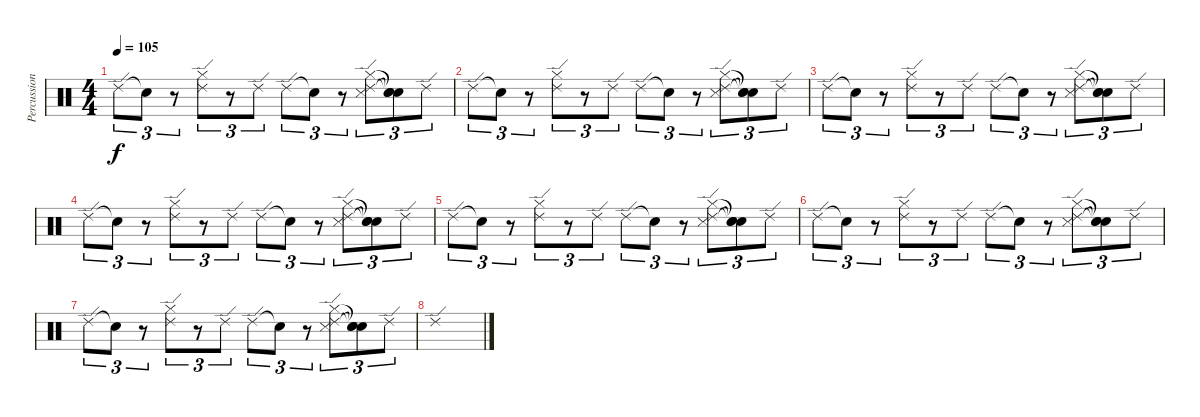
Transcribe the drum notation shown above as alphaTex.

\track ("Percussion" "Percussion") {instrument percussion}
\staff {score}
\articulation defaults
\ts (4 4)
\tempo 105
\clef neutral
\ks c "Ride (edge) 2".8{tu (3 2) dy f} "Snare (hit)"{t}.8{tu (3 2)}
r.8{tu (3 2)} ("Ride (edge) 2" "Hi-Hat (closed)").8{tu (3 2)} r.8{tu (3 2)} "Ride (edge) 2".8{tu (3 2)} "Ride (edge) 2".8{tu (3 2)} "Snare (hit)"{t}.8{tu (3 2)} r.8{tu (3 2)} ("Ride (edge) 2" "Snare (side stick) 3" "Hi-Hat (closed)").8{tu (3 2)} ("Snare (hit)"{t} "Snare (hit)"{t} "Snare (hit)"{t}).8{tu (3 2)} "Ride (edge) 2".8{tu (3 2)} |
"Ride (edge) 2".8{tu (3 2)} "Snare (hit)"{t}.8{tu (3 2)} r.8{tu (3 2)} ("Ride (edge) 2" "Hi-Hat (closed)").8{tu (3 2)} r.8{tu (3 2)} "Ride (edge) 2".8{tu (3 2)} "Ride (edge) 2".8{tu (3 2)} "Snare (hit)"{t}.8{tu (3 2)} r.8{tu (3 2)} ("Ride (edge) 2" "Snare (side stick) 3" "Hi-Hat (closed)").8{tu (3 2)} ("Snare (hit)"{t} "Snare (hit)"{t} "Snare (hit)"{t}).8{tu (3 2)} "Ride (edge) 2".8{tu (3 2)} |
"Ride (edge) 2".8{tu (3 2)} "Snare (hit)"{t}.8{tu (3 2)} r.8{tu (3 2)} ("Ride (edge) 2" "Hi-Hat (closed)").8{tu (3 2)} r.8{tu (3 2)} "Ride (edge) 2".8{tu (3 2)} "Ride (edge) 2".8{tu (3 2)} "Snare (hit)"{t}.8{tu (3 2)} r.8{tu (3 2)} ("Ride (edge) 2" "Snare (side stick) 3" "Hi-Hat (closed)").8{tu (3 2)} ("Snare (hit)"{t} "Snare (hit)"{t} "Snare (hit)"{t}).8{tu (3 2)} "Ride (edge) 2".8{tu (3 2)} |
"Ride (edge) 2".8{tu (3 2)} "Snare (hit)"{t}.8{tu (3 2)} r.8{tu (3 2)} ("Ride (edge) 2" "Hi-Hat (closed)").8{tu (3 2)} r.8{tu (3 2)} "Ride (edge) 2".8{tu (3 2)} "Ride (edge) 2".8{tu (3 2)} "Snare (hit)"{t}.8{tu (3 2)} r.8{tu (3 2)} ("Ride (edge) 2" "Snare (side stick) 3" "Hi-Hat (closed)").8{tu (3 2)} ("Snare (hit)"{t} "Snare (hit)"{t} "Snare (hit)"{t}).8{tu (3 2)} "Ride (edge) 2".8{tu (3 2)} |
"Ride (edge) 2".8{tu (3 2)} "Snare (hit)"{t}.8{tu (3 2)} r.8{tu (3 2)} ("Ride (edge) 2" "Hi-Hat (closed)").8{tu (3 2)} r.8{tu (3 2)} "Ride (edge) 2".8{tu (3 2)} "Ride (edge) 2".8{tu (3 2)} "Snare (hit)"{t}.8{tu (3 2)} r.8{tu (3 2)} ("Ride (edge) 2" "Snare (side stick) 3" "Hi-Hat (closed)").8{tu (3 2)} ("Snare (hit)"{t} "Snare (hit)"{t} "Snare (hit)"{t}).8{tu (3 2)} "Ride (edge) 2".8{tu (3 2)} |
"Ride (edge) 2".8{tu (3 2)} "Snare (hit)"{t}.8{tu (3 2)} r.8{tu (3 2)} ("Ride (edge) 2" "Hi-Hat (closed)").8{tu (3 2)} r.8{tu (3 2)} "Ride (edge) 2".8{tu (3 2)} "Ride (edge) 2".8{tu (3 2)} "Snare (hit)"{t}.8{tu (3 2)} r.8{tu (3 2)} ("Ride (edge) 2" "Snare (side stick) 3" "Hi-Hat (closed)").8{tu (3 2)} ("Snare (hit)"{t} "Snare (hit)"{t} "Snare (hit)"{t}).8{tu (3 2)} "Ride (edge) 2".8{tu (3 2)} |
"Ride (edge) 2".8{tu (3 2)} "Snare (hit)"{t}.8{tu (3 2)} r.8{tu (3 2)} ("Ride (edge) 2" "Hi-Hat (closed)").8{tu (3 2)} r.8{tu (3 2)} "Ride (edge) 2".8{tu (3 2)} "Ride (edge) 2".8{tu (3 2)} "Snare (hit)"{t}.8{tu (3 2)} r.8{tu (3 2)} ("Ride (edge) 2" "Snare (side stick) 3" "Hi-Hat (closed)").8{tu (3 2)} ("Snare (hit)"{t} "Snare (hit)"{t} "Snare (hit)"{t}).8{tu (3 2)} "Ride (edge) 2".8{tu (3 2)} |
"Ride (edge) 2".1
